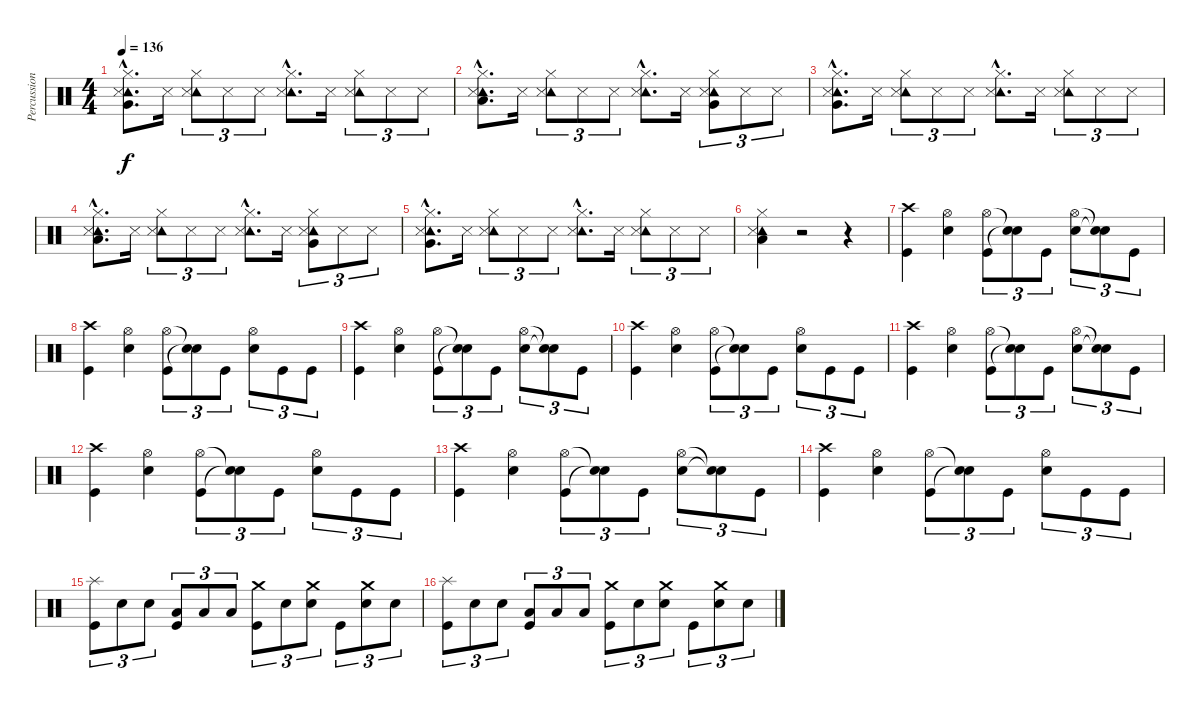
\track ("Percussions" "Percussion") {instrument percussion}
\staff {score}
\articulation defaults
\ts (4 4)
\tempo 136
\clef neutral
\ks c
("Hi-Hat (closed)"{hac} "Tambourine (hit)"{hac} "Snare (side stick) 3"{hac} "Very Low Tom (hit)"{hac}).8{d dy f} "Snare (side stick) 3".16 ("Hi-Hat (closed)" "Tambourine (hit)" "Snare (side stick) 3").8{tu (3 2)} "Snare (side stick) 3".8{tu (3 2)} "Snare (side stick) 3".8{tu (3 2)} ("Hi-Hat (closed)"{hac} "Tambourine (hit)"{hac} "Snare (side stick) 3"{hac}).8{d} "Snare (side stick) 3".16 ("Hi-Hat (closed)" "Tambourine (hit)" "Snare (side stick) 3").8{tu (3 2)} "Snare (side stick) 3".8{tu (3 2)} "Snare (side stick) 3".8{tu (3 2)} |
("Hi-Hat (closed)"{hac} "Tambourine (hit)"{hac} "Snare (side stick) 3"{hac} "Low Floor Tom (hit)"{hac}).8{d} "Snare (side stick) 3".16 ("Hi-Hat (closed)" "Tambourine (hit)" "Snare (side stick) 3").8{tu (3 2)} "Snare (side stick) 3".8{tu (3 2)} "Snare (side stick) 3".8{tu (3 2)} ("Hi-Hat (closed)"{hac} "Tambourine (hit)"{hac} "Snare (side stick) 3"{hac}).8{d} "Snare (side stick) 3".16 ("Hi-Hat (closed)" "Tambourine (hit)" "Snare (side stick) 3" "Very Low Tom (hit)").8{tu (3 2)} "Snare (side stick) 3".8{tu (3 2)} "Snare (side stick) 3".8{tu (3 2)} |
("Hi-Hat (closed)"{hac} "Tambourine (hit)"{hac} "Snare (side stick) 3"{hac} "Very Low Tom (hit)"{hac}).8{d} "Snare (side stick) 3".16 ("Hi-Hat (closed)" "Tambourine (hit)" "Snare (side stick) 3").8{tu (3 2)} "Snare (side stick) 3".8{tu (3 2)} "Snare (side stick) 3".8{tu (3 2)} ("Hi-Hat (closed)"{hac} "Tambourine (hit)"{hac} "Snare (side stick) 3"{hac}).8{d} "Snare (side stick) 3".16 ("Hi-Hat (closed)" "Tambourine (hit)" "Snare (side stick) 3").8{tu (3 2)} "Snare (side stick) 3".8{tu (3 2)} "Snare (side stick) 3".8{tu (3 2)} |
("Hi-Hat (closed)"{hac} "Tambourine (hit)"{hac} "Snare (side stick) 3"{hac} "Low Floor Tom (hit)"{hac}).8{d} "Snare (side stick) 3".16 ("Hi-Hat (closed)" "Tambourine (hit)" "Snare (side stick) 3").8{tu (3 2)} "Snare (side stick) 3".8{tu (3 2)} "Snare (side stick) 3".8{tu (3 2)} ("Hi-Hat (closed)"{hac} "Tambourine (hit)"{hac} "Snare (side stick) 3"{hac}).8{d} "Snare (side stick) 3".16 ("Hi-Hat (closed)" "Tambourine (hit)" "Snare (side stick) 3" "Very Low Tom (hit)").8{tu (3 2)} "Snare (side stick) 3".8{tu (3 2)} "Snare (side stick) 3".8{tu (3 2)} |
("Hi-Hat (closed)"{hac} "Tambourine (hit)"{hac} "Snare (side stick) 3"{hac} "Very Low Tom (hit)"{hac}).8{d} "Snare (side stick) 3".16 ("Hi-Hat (closed)" "Tambourine (hit)" "Snare (side stick) 3").8{tu (3 2)} "Snare (side stick) 3".8{tu (3 2)} "Snare (side stick) 3".8{tu (3 2)} ("Hi-Hat (closed)"{hac} "Tambourine (hit)"{hac} "Snare (side stick) 3"{hac}).8{d} "Snare (side stick) 3".16 ("Hi-Hat (closed)" "Tambourine (hit)" "Snare (side stick) 3").8{tu (3 2)} "Snare (side stick) 3".8{tu (3 2)} "Snare (side stick) 3".8{tu (3 2)} |
("Hi-Hat (closed)" "Tambourine (hit)" "Snare (side stick) 3" "Low Floor Tom (hit)").4 r.2 r.4 |
("Crash high (hit)" "Kick (hit)").4 ("Hi-Hat (open)" "Snare (hit) 2").4 ("Hi-Hat (open)" "Kick (hit)").8{tu (3 2)} ("Snare (hit)"{t} "Snare (hit)"{t}).8{tu (3 2)} "Kick (hit)".8{tu (3 2)} ("Hi-Hat (open)" "Snare (hit) 2").8{tu (3 2)} ("Snare (hit)"{t} "Snare (hit)"{t}).8{tu (3 2)} "Kick (hit)".8{tu (3 2)} |
("Crash high (hit)" "Kick (hit)").4 ("Hi-Hat (open)" "Snare (hit) 2").4 ("Hi-Hat (open)" "Kick (hit)").8{tu (3 2)} ("Snare (hit)"{t} "Snare (hit)"{t}).8{tu (3 2)} "Kick (hit)".8{tu (3 2)} ("Hi-Hat (open)" "Snare (hit) 2").8{tu (3 2)} "Kick (hit)".8{tu (3 2)} "Kick (hit)".8{tu (3 2)} |
("Crash high (hit)" "Kick (hit)").4 ("Hi-Hat (open)" "Snare (hit) 2").4 ("Hi-Hat (open)" "Kick (hit)").8{tu (3 2)} ("Snare (hit)"{t} "Snare (hit)"{t}).8{tu (3 2)} "Kick (hit)".8{tu (3 2)} ("Hi-Hat (open)" "Snare (hit) 2").8{tu (3 2)} ("Snare (hit)"{t} "Snare (hit)"{t}).8{tu (3 2)} "Kick (hit)".8{tu (3 2)} |
("Crash high (hit)" "Kick (hit)").4 ("Hi-Hat (open)" "Snare (hit) 2").4 ("Hi-Hat (open)" "Kick (hit)").8{tu (3 2)} ("Snare (hit)"{t} "Snare (hit)"{t}).8{tu (3 2)} "Kick (hit)".8{tu (3 2)} ("Hi-Hat (open)" "Snare (hit) 2").8{tu (3 2)} "Kick (hit)".8{tu (3 2)} "Kick (hit)".8{tu (3 2)} |
("Crash high (hit)" "Kick (hit)").4 ("Hi-Hat (open)" "Snare (hit) 2").4 ("Hi-Hat (open)" "Kick (hit)").8{tu (3 2)} ("Snare (hit)"{t} "Snare (hit)"{t}).8{tu (3 2)} "Kick (hit)".8{tu (3 2)} ("Hi-Hat (open)" "Snare (hit) 2").8{tu (3 2)} ("Snare (hit)"{t} "Snare (hit)"{t}).8{tu (3 2)} "Kick (hit)".8{tu (3 2)} |
("Crash high (hit)" "Kick (hit)").4 ("Hi-Hat (open)" "Snare (hit) 2").4 ("Hi-Hat (open)" "Kick (hit)").8{tu (3 2)} ("Snare (hit)"{t} "Snare (hit)"{t}).8{tu (3 2)} "Kick (hit)".8{tu (3 2)} ("Hi-Hat (open)" "Snare (hit) 2").8{tu (3 2)} "Kick (hit)".8{tu (3 2)} "Kick (hit)".8{tu (3 2)} |
("Crash high (hit)" "Kick (hit)").4 ("Hi-Hat (open)" "Snare (hit) 2").4 ("Hi-Hat (open)" "Kick (hit)").8{tu (3 2)} ("Snare (hit)"{t} "Snare (hit)"{t}).8{tu (3 2)} "Kick (hit)".8{tu (3 2)} ("Hi-Hat (open)" "Snare (hit) 2").8{tu (3 2)} ("Snare (hit)"{t} "Snare (hit)"{t}).8{tu (3 2)} "Kick (hit)".8{tu (3 2)} |
("Crash high (hit)" "Kick (hit)").4 ("Hi-Hat (open)" "Snare (hit) 2").4 ("Hi-Hat (open)" "Kick (hit)").8{tu (3 2)} ("Snare (hit)"{t} "Snare (hit)"{t}).8{tu (3 2)} "Kick (hit)".8{tu (3 2)} ("Hi-Hat (open)" "Snare (hit) 2").8{tu (3 2)} "Kick (hit)".8{tu (3 2)} "Kick (hit)".8{tu (3 2)} |
("Splash (hit)" "Kick (hit)").8{tu (3 2)} "Snare (hit) 2".8{tu (3 2)} "Snare (hit) 2".8{tu (3 2)} ("Low Floor Tom (hit)" "Kick (hit)").8{tu (3 2)} "Low Floor Tom (hit)".8{tu (3 2)} "Low Floor Tom (hit)".8{tu (3 2)} ("Crash medium (hit)" "Kick (hit)").8{tu (3 2)} "Snare (hit) 2".8{tu (3 2)} ("Crash medium (hit)" "Snare (hit) 2").8{tu (3 2)} "Kick (hit)".8{tu (3 2)} ("Crash medium (hit)" "Snare (hit) 2").8{tu (3 2)} "Snare (hit) 2".8{tu (3 2)} |
("Splash (hit)" "Kick (hit)").8{tu (3 2)} "Snare (hit) 2".8{tu (3 2)} "Snare (hit) 2".8{tu (3 2)} ("Low Floor Tom (hit)" "Kick (hit)").8{tu (3 2)} "Low Floor Tom (hit)".8{tu (3 2)} "Low Floor Tom (hit)".8{tu (3 2)} ("Crash medium (hit)" "Kick (hit)").8{tu (3 2)} "Snare (hit) 2".8{tu (3 2)} ("Crash medium (hit)" "Snare (hit) 2").8{tu (3 2)} "Kick (hit)".8{tu (3 2)} ("Crash medium (hit)" "Snare (hit) 2").8{tu (3 2)} "Snare (hit) 2".8{tu (3 2)}
